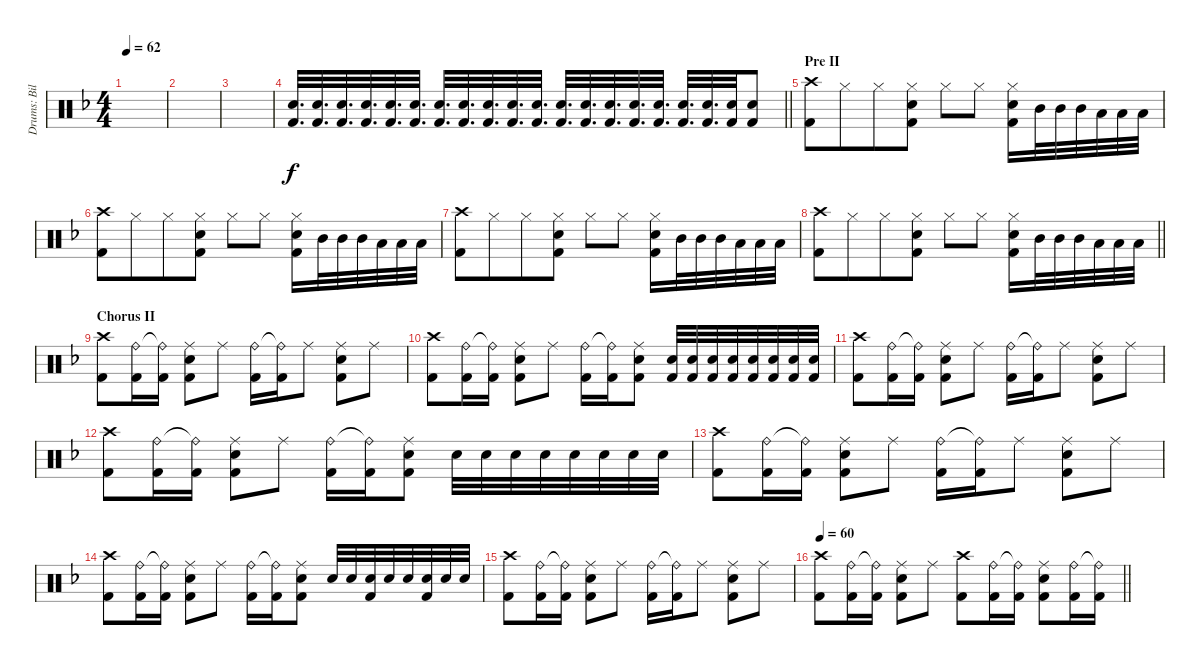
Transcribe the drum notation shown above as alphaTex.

\track ("Drums: Bill" "Drums: Bil") {instrument percussion}
\staff {score}
\articulation defaults
\ts (4 4)
\tempo 62
\clef neutral
\ks f
|
|
|
\barLineRight lightlight
("Snare (hit) 2" "Kick (hit) 2").32{d volume 0} ("Snare (hit) 2" "Kick (hit) 2").32{d volume 13} ("Snare (hit) 2" "Kick (hit) 2").32{d} ("Snare (hit) 2" "Kick (hit) 2").32{d} ("Snare (hit) 2" "Kick (hit) 2").32{d} ("Snare (hit) 2" "Kick (hit) 2").32{d} ("Snare (hit) 2" "Kick (hit) 2").32{d} ("Snare (hit) 2" "Kick (hit) 2").32{d} ("Snare (hit) 2" "Kick (hit) 2").32{d} ("Snare (hit) 2" "Kick (hit) 2").32{d} ("Snare (hit) 2" "Kick (hit) 2").32{d} ("Snare (hit) 2" "Kick (hit) 2").32{d} ("Snare (hit) 2" "Kick (hit) 2").32{d} ("Snare (hit) 2" "Kick (hit) 2").32{d} ("Snare (hit) 2" "Kick (hit) 2").32{d} ("Snare (hit) 2" "Kick (hit) 2").32{d} ("Snare (hit) 2" "Kick (hit) 2").32{d} ("Snare (hit) 2" "Kick (hit) 2").32{d} ("Snare (hit) 2" "Kick (hit) 2").32 ("Snare (hit) 2" "Kick (hit) 2").8 |
\section ("" "Pre II")
("Crash high (hit)" "Kick (hit) 2").8 "Hi-Hat (closed)".8{beam merge} "Hi-Hat (closed)".8 ("Hi-Hat (closed)" "Snare (hit) 2" "Kick (hit) 2").8 "Hi-Hat (closed)".8 "Hi-Hat (closed)".8 ("Hi-Hat (closed)" "Snare (hit) 2" "Kick (hit) 2").16 "Mid Tom (hit)".32 "Mid Tom (hit)".32 "Mid Tom (hit)".32 "Low Tom (hit)".32 "Low Tom (hit)".32 "Low Tom (hit)".32 |
("Crash high (hit)" "Kick (hit) 2").8 "Hi-Hat (closed)".8{beam merge} "Hi-Hat (closed)".8 ("Hi-Hat (closed)" "Snare (hit) 2" "Kick (hit) 2").8 "Hi-Hat (closed)".8 "Hi-Hat (closed)".8 ("Hi-Hat (closed)" "Snare (hit) 2" "Kick (hit) 2").16 "Mid Tom (hit)".32 "Mid Tom (hit)".32 "Mid Tom (hit)".32 "Low Tom (hit)".32 "Low Tom (hit)".32 "Low Tom (hit)".32 |
("Crash high (hit)" "Kick (hit) 2").8 "Hi-Hat (closed)".8{beam merge} "Hi-Hat (closed)".8 ("Hi-Hat (closed)" "Snare (hit) 2" "Kick (hit) 2").8 "Hi-Hat (closed)".8 "Hi-Hat (closed)".8 ("Hi-Hat (closed)" "Snare (hit) 2" "Kick (hit) 2").16 "Mid Tom (hit)".32 "Mid Tom (hit)".32 "Mid Tom (hit)".32 "Low Tom (hit)".32 "Low Tom (hit)".32 "Low Tom (hit)".32 |
\barLineRight lightlight
("Crash high (hit)" "Kick (hit) 2").8 "Hi-Hat (closed)".8{beam merge} "Hi-Hat (closed)".8 ("Hi-Hat (closed)" "Snare (hit) 2" "Kick (hit) 2").8 "Hi-Hat (closed)".8 "Hi-Hat (closed)".8 ("Hi-Hat (closed)" "Snare (hit) 2" "Kick (hit) 2").16 "Mid Tom (hit)".32 "Mid Tom (hit)".32 "Mid Tom (hit)".32 "Low Tom (hit)".32 "Low Tom (hit)".32 "Low Tom (hit)".32 |
\section ("" "Chorus II")
("Crash high (hit)" "Kick (hit) 2").8 ("Ride (bell)" "Kick (hit) 2").16 ("Ride (bell)"{t} "Kick (hit) 2").16 ("Ride (middle)" "Snare (hit) 2" "Kick (hit) 2").8 "Ride (middle)".8 ("Ride (bell)" "Kick (hit) 2").16 ("Ride (bell)"{t} "Kick (hit) 2").16 "Ride (middle)".8 ("Ride (middle)" "Snare (hit) 2" "Kick (hit) 2").8 "Ride (middle)".8 |
("Crash high (hit)" "Kick (hit) 2").8 ("Ride (bell)" "Kick (hit) 2").16 ("Ride (bell)"{t} "Kick (hit) 2").16 ("Ride (middle)" "Snare (hit) 2" "Kick (hit) 2").8 "Ride (middle)".8 ("Ride (bell)" "Kick (hit) 2").16 ("Ride (bell)"{t} "Kick (hit) 2").16 ("Ride (middle)" "Snare (hit) 2" "Kick (hit) 2").8 ("Snare (hit) 2" "Kick (hit) 2").32 ("Snare (hit) 2" "Kick (hit) 2").32 ("Snare (hit) 2" "Kick (hit) 2").32 ("Snare (hit) 2" "Kick (hit) 2").32 ("Snare (hit) 2" "Kick (hit) 2").32 ("Snare (hit) 2" "Kick (hit) 2").32 ("Snare (hit) 2" "Kick (hit) 2").32 ("Snare (hit) 2" "Kick (hit) 2").32 |
("Crash high (hit)" "Kick (hit) 2").8 ("Ride (bell)" "Kick (hit) 2").16 ("Ride (bell)"{t} "Kick (hit) 2").16 ("Ride (middle)" "Snare (hit) 2" "Kick (hit) 2").8 "Ride (middle)".8 ("Ride (bell)" "Kick (hit) 2").16 ("Ride (bell)"{t} "Kick (hit) 2").16 "Ride (middle)".8 ("Ride (middle)" "Snare (hit) 2" "Kick (hit) 2").8 "Ride (middle)".8 |
("Crash high (hit)" "Kick (hit) 2").8 ("Ride (bell)" "Kick (hit) 2").16 ("Ride (bell)"{t} "Kick (hit) 2").16 ("Ride (middle)" "Snare (hit) 2" "Kick (hit) 2").8 "Ride (middle)".8 ("Ride (bell)" "Kick (hit) 2").16 ("Ride (bell)"{t} "Kick (hit) 2").16 ("Ride (middle)" "Snare (hit) 2" "Kick (hit) 2").8 "Snare (hit) 2".32 "Snare (hit) 2".32 "Snare (hit) 2".32 "Snare (hit) 2".32 "Snare (hit) 2".32 "Snare (hit) 2".32 "Snare (hit) 2".32 "Snare (hit) 2".32 |
("Crash high (hit)" "Kick (hit) 2").8 ("Ride (bell)" "Kick (hit) 2").16 ("Ride (bell)"{t} "Kick (hit) 2").16 ("Ride (middle)" "Snare (hit) 2" "Kick (hit) 2").8 "Ride (middle)".8 ("Ride (bell)" "Kick (hit) 2").16 ("Ride (bell)"{t} "Kick (hit) 2").16 "Ride (middle)".8 ("Ride (middle)" "Snare (hit) 2" "Kick (hit) 2").8 "Ride (middle)".8 |
("Crash high (hit)" "Kick (hit) 2").8 ("Ride (bell)" "Kick (hit) 2").16 ("Ride (bell)"{t} "Kick (hit) 2").16 ("Ride (middle)" "Snare (hit) 2" "Kick (hit) 2").8 "Ride (middle)".8 ("Ride (bell)" "Kick (hit) 2").16 ("Ride (bell)"{t} "Kick (hit) 2").16 ("Ride (middle)" "Snare (hit) 2" "Kick (hit) 2").8 "Snare (hit) 2".32 "Snare (hit) 2".32 ("Snare (hit) 2" "Kick (hit) 2").32 "Snare (hit) 2".32 "Snare (hit) 2".32 ("Snare (hit) 2" "Kick (hit) 2").32 "Snare (hit) 2".32 "Snare (hit) 2".32 |
("Crash high (hit)" "Kick (hit) 2").8 ("Ride (bell)" "Kick (hit) 2").16 ("Ride (bell)"{t} "Kick (hit) 2").16 ("Ride (middle)" "Snare (hit) 2" "Kick (hit) 2").8 "Ride (middle)".8 ("Ride (bell)" "Kick (hit) 2").16 ("Ride (bell)"{t} "Kick (hit) 2").16 "Ride (middle)".8 ("Ride (middle)" "Snare (hit) 2" "Kick (hit) 2").8 "Ride (middle)".8 |
\tempo 60
\barLineRight lightlight
("Crash high (hit)" "Kick (hit) 2").8 ("Ride (bell)" "Kick (hit) 2").16 ("Ride (bell)"{t} "Kick (hit) 2").16 ("Ride (middle)" "Snare (hit) 2" "Kick (hit) 2").8 "Ride (middle)".8 ("Crash high (hit)" "Kick (hit) 2").8 ("Ride (bell)" "Kick (hit) 2").16 ("Ride (bell)"{t} "Kick (hit) 2").16 ("Ride (middle)" "Snare (hit) 2" "Kick (hit) 2").8 ("Ride (bell)" "Kick (hit) 2").16 ("Ride (bell)"{t} "Kick (hit) 2").16
